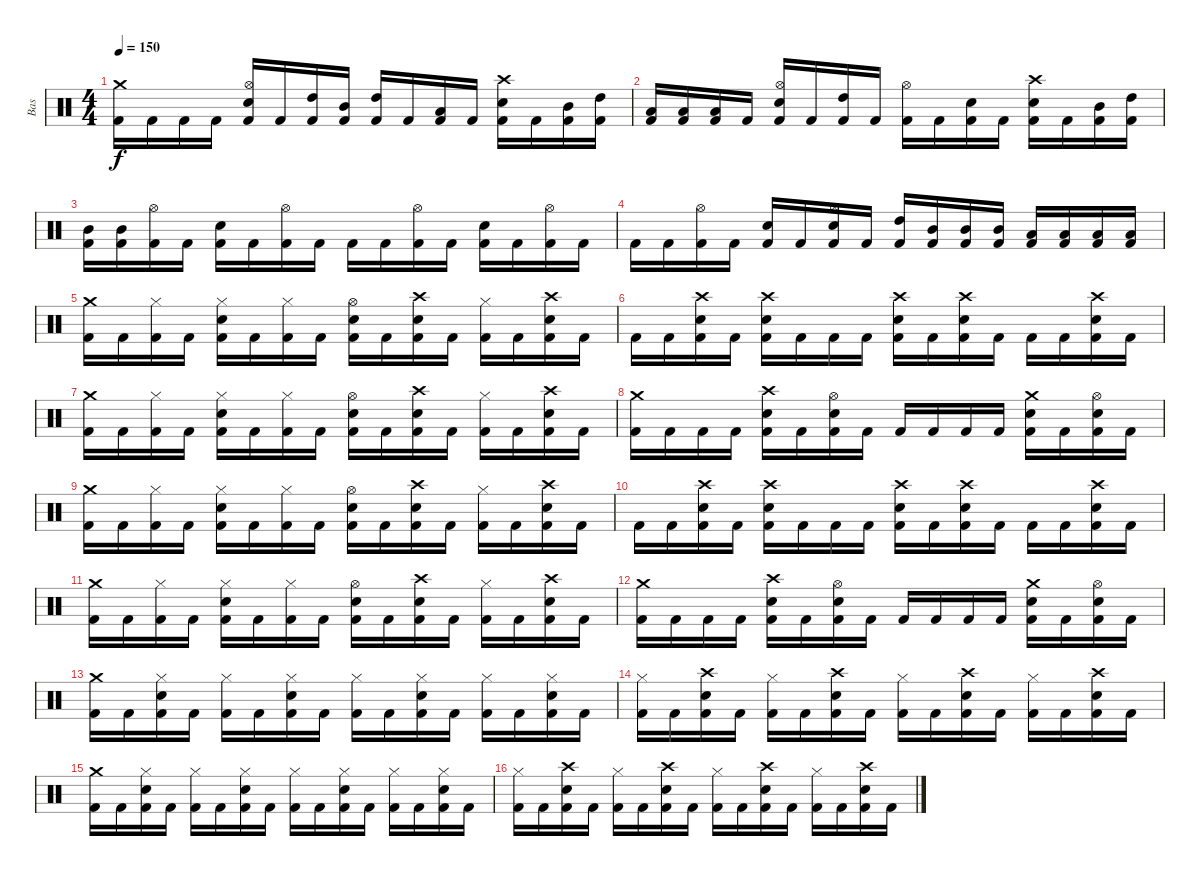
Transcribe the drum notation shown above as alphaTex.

\track ("Bas" "Bas") {instrument percussion}
\staff {score}
\articulation defaults
\ts (4 4)
\tempo 150
\clef neutral
\ks c
("Crash medium (hit)" "Kick (hit) 2").16{dy f} "Kick (hit) 2".16 "Kick (hit) 2".16 "Kick (hit) 2".16 ("Hi-Hat (open)" "Snare (hit) 2" "Kick (hit) 2").16 "Kick (hit) 2".16 ("High Tom (hit)" "Kick (hit) 2").16 ("Mid Tom (hit)" "Kick (hit) 2").16 ("High Tom (hit)" "Kick (hit) 2").16 "Kick (hit) 2".16 ("Low Tom (hit)" "Kick (hit) 2").16 "Kick (hit) 2".16 ("Crash high (hit)" "Snare (hit) 2" "Kick (hit) 2").16 "Kick (hit) 2".16 ("Mid Tom (hit)" "Kick (hit) 2").16 ("High Tom (hit)" "Kick (hit) 2").16 |
("Low Tom (hit)" "Kick (hit) 2").16 ("Low Tom (hit)" "Kick (hit) 2").16 ("Low Tom (hit)" "Kick (hit) 2").16 "Kick (hit) 2".16 ("Hi-Hat (open)" "Snare (hit) 2" "Kick (hit) 2").16 "Kick (hit) 2".16 ("High Tom (hit)" "Kick (hit) 2").16 "Kick (hit) 2".16 ("Hi-Hat (open)" "Kick (hit) 2").16 "Kick (hit) 2".16 ("Snare (hit) 2" "Kick (hit) 2").16 "Kick (hit) 2".16 ("Crash high (hit)" "Snare (hit) 2" "Kick (hit) 2").16 "Kick (hit) 2".16 ("Mid Tom (hit)" "Kick (hit) 2").16 ("High Tom (hit)" "Kick (hit) 2").16 |
("Mid Tom (hit)" "Kick (hit) 2").16 ("Mid Tom (hit)" "Kick (hit) 2").16 ("Hi-Hat (open)" "Kick (hit) 2").16 "Kick (hit) 2".16 ("Snare (hit) 2" "Kick (hit) 2").16 "Kick (hit) 2".16 ("Hi-Hat (open)" "Kick (hit) 2").16 "Kick (hit) 2".16 "Kick (hit) 2".16 "Kick (hit) 2".16 ("Hi-Hat (open)" "Kick (hit) 2").16 "Kick (hit) 2".16 ("Snare (hit) 2" "Kick (hit) 2").16 "Kick (hit) 2".16 ("Hi-Hat (open)" "Kick (hit) 2").16 "Kick (hit) 2".16 |
"Kick (hit) 2".16 "Kick (hit) 2".16 ("Hi-Hat (open)" "Kick (hit) 2").16 "Kick (hit) 2".16 ("Snare (hit) 2" "Kick (hit) 2").16 "Kick (hit) 2".16 ("Hi-Hat (open)" "Snare (hit) 2" "Kick (hit) 2").16 "Kick (hit) 2".16 ("High Tom (hit)" "Kick (hit) 2").16 ("Mid Tom (hit)" "Kick (hit) 2").16 ("Mid Tom (hit)" "Kick (hit) 2").16 ("Mid Tom (hit)" "Kick (hit) 2").16 ("Low Tom (hit)" "Kick (hit) 2").16 ("Low Tom (hit)" "Kick (hit) 2").16 ("Low Tom (hit)" "Kick (hit) 2").16 ("Low Tom (hit)" "Kick (hit) 2").16 |
("Crash medium (hit)" "Kick (hit) 2").16 "Kick (hit) 2".16 ("Hi-Hat (closed)" "Kick (hit) 2").16 "Kick (hit) 2".16 ("Hi-Hat (closed)" "Snare (hit) 2" "Kick (hit) 2").16 "Kick (hit) 2".16 ("Hi-Hat (closed)" "Kick (hit) 2").16 "Kick (hit) 2".16 ("Hi-Hat (open)" "Snare (hit) 2" "Kick (hit) 2").16 "Kick (hit) 2".16 ("Crash high (hit)" "Snare (hit) 2" "Kick (hit) 2").16 "Kick (hit) 2".16 ("Hi-Hat (closed)" "Kick (hit) 2").16 "Kick (hit) 2".16 ("Crash high (hit)" "Snare (hit) 2" "Kick (hit) 2").16 "Kick (hit) 2".16 |
"Kick (hit) 2".16 "Kick (hit) 2".16 ("Crash high (hit)" "Snare (hit) 2" "Kick (hit) 2").16 "Kick (hit) 2".16 ("Crash high (hit)" "Snare (hit) 2" "Kick (hit) 2").16 "Kick (hit) 2".16 "Kick (hit) 2".16 "Kick (hit) 2".16 ("Crash high (hit)" "Snare (hit) 2" "Kick (hit) 2").16 "Kick (hit) 2".16 ("Crash high (hit)" "Snare (hit) 2" "Kick (hit) 2").16 "Kick (hit) 2".16 "Kick (hit) 2".16 "Kick (hit) 2".16 ("Crash high (hit)" "Snare (hit) 2" "Kick (hit) 2").16 "Kick (hit) 2".16 |
("Crash medium (hit)" "Kick (hit) 2").16 "Kick (hit) 2".16 ("Hi-Hat (closed)" "Kick (hit) 2").16 "Kick (hit) 2".16 ("Hi-Hat (closed)" "Snare (hit) 2" "Kick (hit) 2").16 "Kick (hit) 2".16 ("Hi-Hat (closed)" "Kick (hit) 2").16 "Kick (hit) 2".16 ("Hi-Hat (open)" "Snare (hit) 2" "Kick (hit) 2").16 "Kick (hit) 2".16 ("Crash high (hit)" "Snare (hit) 2" "Kick (hit) 2").16 "Kick (hit) 2".16 ("Hi-Hat (closed)" "Kick (hit) 2").16 "Kick (hit) 2".16 ("Crash high (hit)" "Snare (hit) 2" "Kick (hit) 2").16 "Kick (hit) 2".16 |
("Crash medium (hit)" "Kick (hit) 2").16 "Kick (hit) 2".16 "Kick (hit) 2".16 "Kick (hit) 2".16 ("Crash high (hit)" "Snare (hit) 2" "Kick (hit) 2").16 "Kick (hit) 2".16 ("Hi-Hat (open)" "Snare (hit) 2" "Kick (hit) 2").16 "Kick (hit) 2".16 "Kick (hit) 2".16 "Kick (hit) 2".16 "Kick (hit) 2".16 "Kick (hit) 2".16 ("Crash medium (hit)" "Snare (hit) 2" "Kick (hit) 2").16 "Kick (hit) 2".16 ("Hi-Hat (open)" "Snare (hit) 2" "Kick (hit) 2").16 "Kick (hit) 2".16 |
("Crash medium (hit)" "Kick (hit) 2").16 "Kick (hit) 2".16 ("Hi-Hat (closed)" "Kick (hit) 2").16 "Kick (hit) 2".16 ("Hi-Hat (closed)" "Snare (hit) 2" "Kick (hit) 2").16 "Kick (hit) 2".16 ("Hi-Hat (closed)" "Kick (hit) 2").16 "Kick (hit) 2".16 ("Hi-Hat (open)" "Snare (hit) 2" "Kick (hit) 2").16 "Kick (hit) 2".16 ("Crash high (hit)" "Snare (hit) 2" "Kick (hit) 2").16 "Kick (hit) 2".16 ("Hi-Hat (closed)" "Kick (hit) 2").16 "Kick (hit) 2".16 ("Crash high (hit)" "Snare (hit) 2" "Kick (hit) 2").16 "Kick (hit) 2".16 |
"Kick (hit) 2".16 "Kick (hit) 2".16 ("Crash high (hit)" "Snare (hit) 2" "Kick (hit) 2").16 "Kick (hit) 2".16 ("Crash high (hit)" "Snare (hit) 2" "Kick (hit) 2").16 "Kick (hit) 2".16 "Kick (hit) 2".16 "Kick (hit) 2".16 ("Crash high (hit)" "Snare (hit) 2" "Kick (hit) 2").16 "Kick (hit) 2".16 ("Crash high (hit)" "Snare (hit) 2" "Kick (hit) 2").16 "Kick (hit) 2".16 "Kick (hit) 2".16 "Kick (hit) 2".16 ("Crash high (hit)" "Snare (hit) 2" "Kick (hit) 2").16 "Kick (hit) 2".16 |
("Crash medium (hit)" "Kick (hit) 2").16 "Kick (hit) 2".16 ("Hi-Hat (closed)" "Kick (hit) 2").16 "Kick (hit) 2".16 ("Hi-Hat (closed)" "Snare (hit) 2" "Kick (hit) 2").16 "Kick (hit) 2".16 ("Hi-Hat (closed)" "Kick (hit) 2").16 "Kick (hit) 2".16 ("Hi-Hat (open)" "Snare (hit) 2" "Kick (hit) 2").16 "Kick (hit) 2".16 ("Crash high (hit)" "Snare (hit) 2" "Kick (hit) 2").16 "Kick (hit) 2".16 ("Hi-Hat (closed)" "Kick (hit) 2").16 "Kick (hit) 2".16 ("Crash high (hit)" "Snare (hit) 2" "Kick (hit) 2").16 "Kick (hit) 2".16 |
("Crash medium (hit)" "Kick (hit) 2").16 "Kick (hit) 2".16 "Kick (hit) 2".16 "Kick (hit) 2".16 ("Crash high (hit)" "Snare (hit) 2" "Kick (hit) 2").16 "Kick (hit) 2".16 ("Hi-Hat (open)" "Snare (hit) 2" "Kick (hit) 2").16 "Kick (hit) 2".16 "Kick (hit) 2".16 "Kick (hit) 2".16 "Kick (hit) 2".16 "Kick (hit) 2".16 ("Crash medium (hit)" "Snare (hit) 2" "Kick (hit) 2").16 "Kick (hit) 2".16 ("Hi-Hat (open)" "Snare (hit) 2" "Kick (hit) 2").16 "Kick (hit) 2".16 |
("Crash medium (hit)" "Kick (hit) 2").16 "Kick (hit) 2".16 ("Hi-Hat (closed)" "Snare (hit) 2" "Kick (hit) 2").16 "Kick (hit) 2".16 ("Hi-Hat (closed)" "Kick (hit) 2").16 "Kick (hit) 2".16 ("Hi-Hat (closed)" "Snare (hit) 2" "Kick (hit) 2").16 "Kick (hit) 2".16 ("Hi-Hat (closed)" "Kick (hit) 2").16 "Kick (hit) 2".16 ("Hi-Hat (closed)" "Snare (hit) 2" "Kick (hit) 2").16 "Kick (hit) 2".16 ("Hi-Hat (closed)" "Kick (hit) 2").16 "Kick (hit) 2".16 ("Hi-Hat (closed)" "Snare (hit) 2" "Kick (hit) 2").16 "Kick (hit) 2".16 |
("Hi-Hat (closed)" "Kick (hit) 2").16 "Kick (hit) 2".16 ("Crash high (hit)" "Snare (hit) 2" "Kick (hit) 2").16 "Kick (hit) 2".16 ("Hi-Hat (closed)" "Kick (hit) 2").16 "Kick (hit) 2".16 ("Crash high (hit)" "Snare (hit) 2" "Kick (hit) 2").16 "Kick (hit) 2".16 ("Hi-Hat (closed)" "Kick (hit) 2").16 "Kick (hit) 2".16 ("Crash high (hit)" "Snare (hit) 2" "Kick (hit) 2").16 "Kick (hit) 2".16 ("Hi-Hat (closed)" "Kick (hit) 2").16 "Kick (hit) 2".16 ("Crash high (hit)" "Snare (hit) 2" "Kick (hit) 2").16 "Kick (hit) 2".16 |
("Crash medium (hit)" "Kick (hit) 2").16 "Kick (hit) 2".16 ("Hi-Hat (closed)" "Snare (hit) 2" "Kick (hit) 2").16 "Kick (hit) 2".16 ("Hi-Hat (closed)" "Kick (hit) 2").16 "Kick (hit) 2".16 ("Hi-Hat (closed)" "Snare (hit) 2" "Kick (hit) 2").16 "Kick (hit) 2".16 ("Hi-Hat (closed)" "Kick (hit) 2").16 "Kick (hit) 2".16 ("Hi-Hat (closed)" "Snare (hit) 2" "Kick (hit) 2").16 "Kick (hit) 2".16 ("Hi-Hat (closed)" "Kick (hit) 2").16 "Kick (hit) 2".16 ("Hi-Hat (closed)" "Snare (hit) 2" "Kick (hit) 2").16 "Kick (hit) 2".16 |
("Hi-Hat (closed)" "Kick (hit) 2").16 "Kick (hit) 2".16 ("Crash high (hit)" "Snare (hit) 2" "Kick (hit) 2").16 "Kick (hit) 2".16 ("Hi-Hat (closed)" "Kick (hit) 2").16 "Kick (hit) 2".16 ("Crash high (hit)" "Snare (hit) 2" "Kick (hit) 2").16 "Kick (hit) 2".16 ("Hi-Hat (closed)" "Kick (hit) 2").16 "Kick (hit) 2".16 ("Crash high (hit)" "Snare (hit) 2" "Kick (hit) 2").16 "Kick (hit) 2".16 ("Hi-Hat (closed)" "Kick (hit) 2").16 "Kick (hit) 2".16 ("Crash high (hit)" "Snare (hit) 2" "Kick (hit) 2").16 "Kick (hit) 2".16
